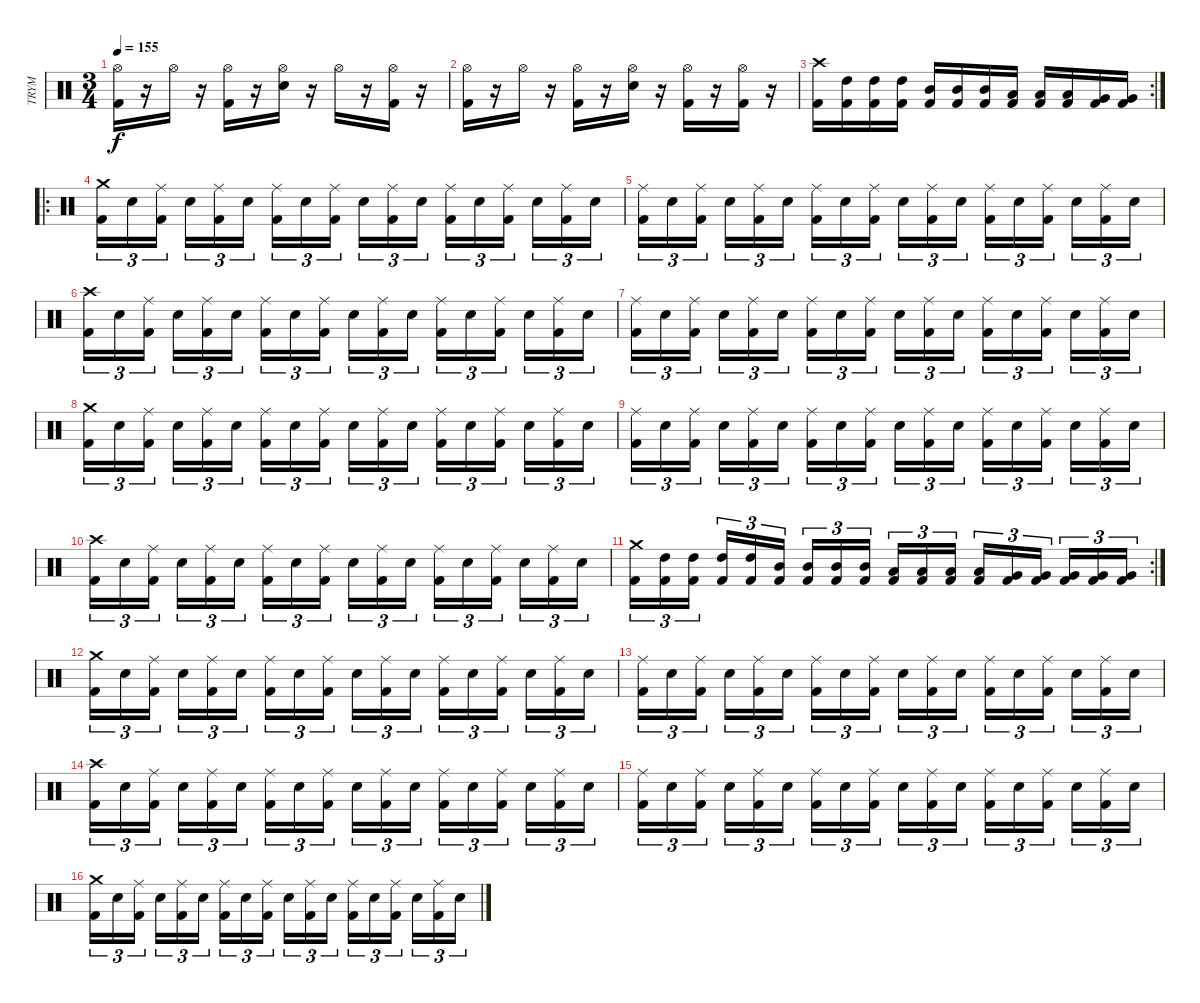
\track ("TRYM" "TRYM") {instrument percussion}
\staff {score}
\articulation defaults
\ts (3 4)
\tempo 155
\clef neutral
\ks c
("Kick (hit) 2" "Hi-Hat (open)").16{dy f} r.16 "Hi-Hat (open)".16 r.16 ("Kick (hit) 2" "Hi-Hat (open)").16 r.16 ("Hi-Hat (open)" "Electric Snare (hit)").16 r.16 "Hi-Hat (open)".16 r.16 ("Kick (hit) 2" "Hi-Hat (open)").16 r.16 |
("Kick (hit) 2" "Hi-Hat (open)").16 r.16 "Hi-Hat (open)".16 r.16 ("Kick (hit) 2" "Hi-Hat (open)").16 r.16 ("Hi-Hat (open)" "Electric Snare (hit)").16 r.16 ("Kick (hit) 2" "Hi-Hat (open)").16 r.16 ("Kick (hit) 2" "Hi-Hat (open)").16 r.16 |
\rc 2
("Kick (hit) 2" "Crash high (hit)").16 ("Kick (hit) 2" "High Tom (hit)").16 ("Kick (hit) 2" "High Tom (hit)").16 ("Kick (hit) 2" "High Tom (hit)").16 ("Kick (hit) 2" "Mid Tom (hit)").16 ("Kick (hit) 2" "Mid Tom (hit)").16 ("Kick (hit) 2" "Mid Tom (hit)").16 ("Kick (hit) 2" "Low Tom (hit)").16 ("Kick (hit) 2" "Low Tom (hit)").16 ("Kick (hit) 2" "Low Tom (hit)").16 ("Kick (hit) 2" "Very Low Tom (hit)").16 ("Kick (hit) 2" "Very Low Tom (hit)").16 |
\ro
("Kick (hit) 2" "Crash medium (hit)").16{tu (3 2)} "Electric Snare (hit)".16{tu (3 2)} ("Kick (hit) 2" "Ride (middle)").16{tu (3 2) beam splitsecondary} "Electric Snare (hit)".16{tu (3 2)} ("Kick (hit) 2" "Ride (middle)").16{tu (3 2)} "Electric Snare (hit)".16{tu (3 2)} ("Kick (hit) 2" "Ride (middle)").16{tu (3 2)} "Electric Snare (hit)".16{tu (3 2)} ("Kick (hit) 2" "Ride (middle)").16{tu (3 2) beam splitsecondary} "Electric Snare (hit)".16{tu (3 2)} ("Kick (hit) 2" "Ride (middle)").16{tu (3 2)} "Electric Snare (hit)".16{tu (3 2)} ("Kick (hit) 2" "Ride (middle)").16{tu (3 2)} "Electric Snare (hit)".16{tu (3 2)} ("Kick (hit) 2" "Ride (middle)").16{tu (3 2) beam splitsecondary} "Electric Snare (hit)".16{tu (3 2)} ("Kick (hit) 2" "Ride (middle)").16{tu (3 2)} "Electric Snare (hit)".16{tu (3 2)} |
("Kick (hit) 2" "Ride (middle)").16{tu (3 2)} "Electric Snare (hit)".16{tu (3 2)} ("Kick (hit) 2" "Ride (middle)").16{tu (3 2) beam splitsecondary} "Electric Snare (hit)".16{tu (3 2)} ("Kick (hit) 2" "Ride (middle)").16{tu (3 2)} "Electric Snare (hit)".16{tu (3 2)} ("Kick (hit) 2" "Ride (middle)").16{tu (3 2)} "Electric Snare (hit)".16{tu (3 2)} ("Kick (hit) 2" "Ride (middle)").16{tu (3 2) beam splitsecondary} "Electric Snare (hit)".16{tu (3 2)} ("Kick (hit) 2" "Ride (middle)").16{tu (3 2)} "Electric Snare (hit)".16{tu (3 2)} ("Kick (hit) 2" "Ride (middle)").16{tu (3 2)} "Electric Snare (hit)".16{tu (3 2)} ("Kick (hit) 2" "Ride (middle)").16{tu (3 2) beam splitsecondary} "Electric Snare (hit)".16{tu (3 2)} ("Kick (hit) 2" "Ride (middle)").16{tu (3 2)} "Electric Snare (hit)".16{tu (3 2)} |
("Kick (hit) 2" "Crash high (hit)").16{tu (3 2)} "Electric Snare (hit)".16{tu (3 2)} ("Kick (hit) 2" "Ride (middle)").16{tu (3 2) beam splitsecondary} "Electric Snare (hit)".16{tu (3 2)} ("Kick (hit) 2" "Ride (middle)").16{tu (3 2)} "Electric Snare (hit)".16{tu (3 2)} ("Kick (hit) 2" "Ride (middle)").16{tu (3 2)} "Electric Snare (hit)".16{tu (3 2)} ("Kick (hit) 2" "Ride (middle)").16{tu (3 2) beam splitsecondary} "Electric Snare (hit)".16{tu (3 2)} ("Kick (hit) 2" "Ride (middle)").16{tu (3 2)} "Electric Snare (hit)".16{tu (3 2)} ("Kick (hit) 2" "Ride (middle)").16{tu (3 2)} "Electric Snare (hit)".16{tu (3 2)} ("Kick (hit) 2" "Ride (middle)").16{tu (3 2) beam splitsecondary} "Electric Snare (hit)".16{tu (3 2)} ("Kick (hit) 2" "Ride (middle)").16{tu (3 2)} "Electric Snare (hit)".16{tu (3 2)} |
("Kick (hit) 2" "Ride (middle)").16{tu (3 2)} "Electric Snare (hit)".16{tu (3 2)} ("Kick (hit) 2" "Ride (middle)").16{tu (3 2) beam splitsecondary} "Electric Snare (hit)".16{tu (3 2)} ("Kick (hit) 2" "Ride (middle)").16{tu (3 2)} "Electric Snare (hit)".16{tu (3 2)} ("Kick (hit) 2" "Ride (middle)").16{tu (3 2)} "Electric Snare (hit)".16{tu (3 2)} ("Kick (hit) 2" "Ride (middle)").16{tu (3 2) beam splitsecondary} "Electric Snare (hit)".16{tu (3 2)} ("Kick (hit) 2" "Ride (middle)").16{tu (3 2)} "Electric Snare (hit)".16{tu (3 2)} ("Kick (hit) 2" "Ride (middle)").16{tu (3 2)} "Electric Snare (hit)".16{tu (3 2)} ("Kick (hit) 2" "Ride (middle)").16{tu (3 2) beam splitsecondary} "Electric Snare (hit)".16{tu (3 2)} ("Kick (hit) 2" "Ride (middle)").16{tu (3 2)} "Electric Snare (hit)".16{tu (3 2)} |
("Kick (hit) 2" "Crash medium (hit)").16{tu (3 2)} "Electric Snare (hit)".16{tu (3 2)} ("Kick (hit) 2" "Ride (middle)").16{tu (3 2) beam splitsecondary} "Electric Snare (hit)".16{tu (3 2)} ("Kick (hit) 2" "Ride (middle)").16{tu (3 2)} "Electric Snare (hit)".16{tu (3 2)} ("Kick (hit) 2" "Ride (middle)").16{tu (3 2)} "Electric Snare (hit)".16{tu (3 2)} ("Kick (hit) 2" "Ride (middle)").16{tu (3 2) beam splitsecondary} "Electric Snare (hit)".16{tu (3 2)} ("Kick (hit) 2" "Ride (middle)").16{tu (3 2)} "Electric Snare (hit)".16{tu (3 2)} ("Kick (hit) 2" "Ride (middle)").16{tu (3 2)} "Electric Snare (hit)".16{tu (3 2)} ("Kick (hit) 2" "Ride (middle)").16{tu (3 2) beam splitsecondary} "Electric Snare (hit)".16{tu (3 2)} ("Kick (hit) 2" "Ride (middle)").16{tu (3 2)} "Electric Snare (hit)".16{tu (3 2)} |
("Kick (hit) 2" "Ride (middle)").16{tu (3 2)} "Electric Snare (hit)".16{tu (3 2)} ("Kick (hit) 2" "Ride (middle)").16{tu (3 2) beam splitsecondary} "Electric Snare (hit)".16{tu (3 2)} ("Kick (hit) 2" "Ride (middle)").16{tu (3 2)} "Electric Snare (hit)".16{tu (3 2)} ("Kick (hit) 2" "Ride (middle)").16{tu (3 2)} "Electric Snare (hit)".16{tu (3 2)} ("Kick (hit) 2" "Ride (middle)").16{tu (3 2) beam splitsecondary} "Electric Snare (hit)".16{tu (3 2)} ("Kick (hit) 2" "Ride (middle)").16{tu (3 2)} "Electric Snare (hit)".16{tu (3 2)} ("Kick (hit) 2" "Ride (middle)").16{tu (3 2)} "Electric Snare (hit)".16{tu (3 2)} ("Kick (hit) 2" "Ride (middle)").16{tu (3 2) beam splitsecondary} "Electric Snare (hit)".16{tu (3 2)} ("Kick (hit) 2" "Ride (middle)").16{tu (3 2)} "Electric Snare (hit)".16{tu (3 2)} |
("Kick (hit) 2" "Crash high (hit)").16{tu (3 2)} "Electric Snare (hit)".16{tu (3 2)} ("Kick (hit) 2" "Ride (middle)").16{tu (3 2) beam splitsecondary} "Electric Snare (hit)".16{tu (3 2)} ("Kick (hit) 2" "Ride (middle)").16{tu (3 2)} "Electric Snare (hit)".16{tu (3 2)} ("Kick (hit) 2" "Ride (middle)").16{tu (3 2)} "Electric Snare (hit)".16{tu (3 2)} ("Kick (hit) 2" "Ride (middle)").16{tu (3 2) beam splitsecondary} "Electric Snare (hit)".16{tu (3 2)} ("Kick (hit) 2" "Ride (middle)").16{tu (3 2)} "Electric Snare (hit)".16{tu (3 2)} ("Kick (hit) 2" "Ride (middle)").16{tu (3 2)} "Electric Snare (hit)".16{tu (3 2)} ("Kick (hit) 2" "Ride (middle)").16{tu (3 2) beam splitsecondary} "Electric Snare (hit)".16{tu (3 2)} ("Kick (hit) 2" "Ride (middle)").16{tu (3 2)} "Electric Snare (hit)".16{tu (3 2)} |
\rc 2
("Kick (hit) 2" "Crash medium (hit)").16{tu (3 2)} ("Kick (hit) 2" "High Tom (hit)").16{tu (3 2)} ("Kick (hit) 2" "High Tom (hit)").16{tu (3 2) beam splitsecondary} ("Kick (hit) 2" "High Tom (hit)").16{tu (3 2)} ("Kick (hit) 2" "High Tom (hit)").16{tu (3 2)} ("Kick (hit) 2" "Mid Tom (hit)").16{tu (3 2)} ("Kick (hit) 2" "Mid Tom (hit)").16{tu (3 2)} ("Kick (hit) 2" "Mid Tom (hit)").16{tu (3 2)} ("Kick (hit) 2" "Mid Tom (hit)").16{tu (3 2) beam splitsecondary} ("Kick (hit) 2" "Low Tom (hit)").16{tu (3 2)} ("Kick (hit) 2" "Low Tom (hit)").16{tu (3 2)} ("Kick (hit) 2" "Low Tom (hit)").16{tu (3 2)} ("Kick (hit) 2" "Low Tom (hit)").16{tu (3 2)} ("Kick (hit) 2" "Very Low Tom (hit)").16{tu (3 2)} ("Kick (hit) 2" "Very Low Tom (hit)").16{tu (3 2) beam splitsecondary} ("Kick (hit) 2" "Very Low Tom (hit)").16{tu (3 2)} ("Kick (hit) 2" "Very Low Tom (hit)").16{tu (3 2)} ("Kick (hit) 2" "Very Low Tom (hit)").16{tu (3 2)} |
("Kick (hit) 2" "Crash medium (hit)").16{tu (3 2)} "Electric Snare (hit)".16{tu (3 2)} ("Kick (hit) 2" "Ride (middle)").16{tu (3 2) beam splitsecondary} "Electric Snare (hit)".16{tu (3 2)} ("Kick (hit) 2" "Ride (middle)").16{tu (3 2)} "Electric Snare (hit)".16{tu (3 2)} ("Kick (hit) 2" "Ride (middle)").16{tu (3 2)} "Electric Snare (hit)".16{tu (3 2)} ("Kick (hit) 2" "Ride (middle)").16{tu (3 2) beam splitsecondary} "Electric Snare (hit)".16{tu (3 2)} ("Kick (hit) 2" "Ride (middle)").16{tu (3 2)} "Electric Snare (hit)".16{tu (3 2)} ("Kick (hit) 2" "Ride (middle)").16{tu (3 2)} "Electric Snare (hit)".16{tu (3 2)} ("Kick (hit) 2" "Ride (middle)").16{tu (3 2) beam splitsecondary} "Electric Snare (hit)".16{tu (3 2)} ("Kick (hit) 2" "Ride (middle)").16{tu (3 2)} "Electric Snare (hit)".16{tu (3 2)} |
("Kick (hit) 2" "Ride (middle)").16{tu (3 2)} "Electric Snare (hit)".16{tu (3 2)} ("Kick (hit) 2" "Ride (middle)").16{tu (3 2) beam splitsecondary} "Electric Snare (hit)".16{tu (3 2)} ("Kick (hit) 2" "Ride (middle)").16{tu (3 2)} "Electric Snare (hit)".16{tu (3 2)} ("Kick (hit) 2" "Ride (middle)").16{tu (3 2)} "Electric Snare (hit)".16{tu (3 2)} ("Kick (hit) 2" "Ride (middle)").16{tu (3 2) beam splitsecondary} "Electric Snare (hit)".16{tu (3 2)} ("Kick (hit) 2" "Ride (middle)").16{tu (3 2)} "Electric Snare (hit)".16{tu (3 2)} ("Kick (hit) 2" "Ride (middle)").16{tu (3 2)} "Electric Snare (hit)".16{tu (3 2)} ("Kick (hit) 2" "Ride (middle)").16{tu (3 2) beam splitsecondary} "Electric Snare (hit)".16{tu (3 2)} ("Kick (hit) 2" "Ride (middle)").16{tu (3 2)} "Electric Snare (hit)".16{tu (3 2)} |
("Kick (hit) 2" "Crash high (hit)").16{tu (3 2)} "Electric Snare (hit)".16{tu (3 2)} ("Kick (hit) 2" "Ride (middle)").16{tu (3 2) beam splitsecondary} "Electric Snare (hit)".16{tu (3 2)} ("Kick (hit) 2" "Ride (middle)").16{tu (3 2)} "Electric Snare (hit)".16{tu (3 2)} ("Kick (hit) 2" "Ride (middle)").16{tu (3 2)} "Electric Snare (hit)".16{tu (3 2)} ("Kick (hit) 2" "Ride (middle)").16{tu (3 2) beam splitsecondary} "Electric Snare (hit)".16{tu (3 2)} ("Kick (hit) 2" "Ride (middle)").16{tu (3 2)} "Electric Snare (hit)".16{tu (3 2)} ("Kick (hit) 2" "Ride (middle)").16{tu (3 2)} "Electric Snare (hit)".16{tu (3 2)} ("Kick (hit) 2" "Ride (middle)").16{tu (3 2) beam splitsecondary} "Electric Snare (hit)".16{tu (3 2)} ("Kick (hit) 2" "Ride (middle)").16{tu (3 2)} "Electric Snare (hit)".16{tu (3 2)} |
("Kick (hit) 2" "Ride (middle)").16{tu (3 2)} "Electric Snare (hit)".16{tu (3 2)} ("Kick (hit) 2" "Ride (middle)").16{tu (3 2) beam splitsecondary} "Electric Snare (hit)".16{tu (3 2)} ("Kick (hit) 2" "Ride (middle)").16{tu (3 2)} "Electric Snare (hit)".16{tu (3 2)} ("Kick (hit) 2" "Ride (middle)").16{tu (3 2)} "Electric Snare (hit)".16{tu (3 2)} ("Kick (hit) 2" "Ride (middle)").16{tu (3 2) beam splitsecondary} "Electric Snare (hit)".16{tu (3 2)} ("Kick (hit) 2" "Ride (middle)").16{tu (3 2)} "Electric Snare (hit)".16{tu (3 2)} ("Kick (hit) 2" "Ride (middle)").16{tu (3 2)} "Electric Snare (hit)".16{tu (3 2)} ("Kick (hit) 2" "Ride (middle)").16{tu (3 2) beam splitsecondary} "Electric Snare (hit)".16{tu (3 2)} ("Kick (hit) 2" "Ride (middle)").16{tu (3 2)} "Electric Snare (hit)".16{tu (3 2)} |
("Kick (hit) 2" "Crash medium (hit)").16{tu (3 2)} "Electric Snare (hit)".16{tu (3 2)} ("Kick (hit) 2" "Ride (middle)").16{tu (3 2) beam splitsecondary} "Electric Snare (hit)".16{tu (3 2)} ("Kick (hit) 2" "Ride (middle)").16{tu (3 2)} "Electric Snare (hit)".16{tu (3 2)} ("Kick (hit) 2" "Ride (middle)").16{tu (3 2)} "Electric Snare (hit)".16{tu (3 2)} ("Kick (hit) 2" "Ride (middle)").16{tu (3 2) beam splitsecondary} "Electric Snare (hit)".16{tu (3 2)} ("Kick (hit) 2" "Ride (middle)").16{tu (3 2)} "Electric Snare (hit)".16{tu (3 2)} ("Kick (hit) 2" "Ride (middle)").16{tu (3 2)} "Electric Snare (hit)".16{tu (3 2)} ("Kick (hit) 2" "Ride (middle)").16{tu (3 2) beam splitsecondary} "Electric Snare (hit)".16{tu (3 2)} ("Kick (hit) 2" "Ride (middle)").16{tu (3 2)} "Electric Snare (hit)".16{tu (3 2)}
